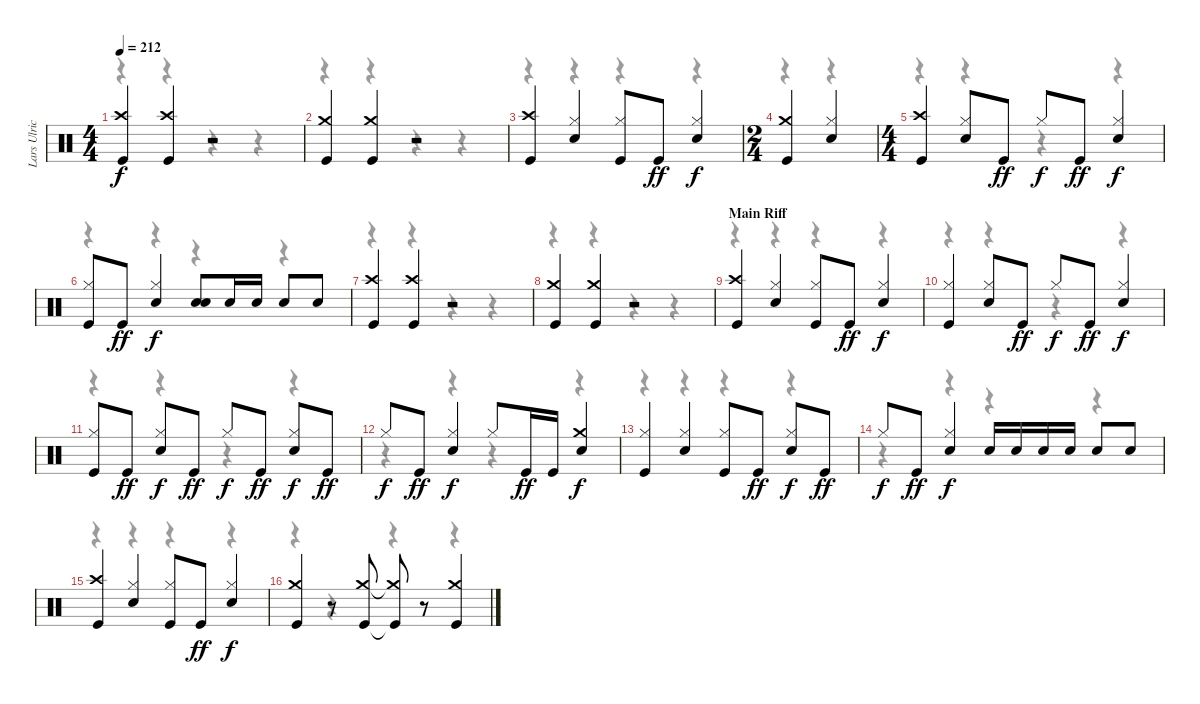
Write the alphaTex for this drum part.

\track ("Lars Ulrich" "Lars Ulric") {instrument percussion}
\staff {score}
\articulation defaults
\voice
\ts (4 4)
\tempo 212
\clef neutral
\ks c
("Crash high (hit)" "Kick (hit)").4{dy f} ("Crash high (hit)" "Kick (hit)").4 r.2 |
("Crash medium (hit)" "Kick (hit)").4 ("Crash medium (hit)" "Kick (hit)").4 r.2 |
("Crash high (hit)" "Kick (hit)").4 ("Hi-Hat (closed)" "Snare (hit) 2").4 ("Hi-Hat (closed)" "Kick (hit)").8 "Kick (hit)".8{dy ff} ("Hi-Hat (closed)" "Snare (hit) 2").4{dy f} |
\ts (2 4)
("Crash medium (hit)" "Kick (hit)").4 ("Hi-Hat (closed)" "Snare (hit) 2").4 |
\ts (4 4)
("Crash high (hit)" "Kick (hit)").4 ("Hi-Hat (closed)" "Snare (hit) 2").8 "Kick (hit)".8{dy ff} "Hi-Hat (closed)".8{dy f} "Kick (hit)".8{dy ff} ("Hi-Hat (closed)" "Snare (hit) 2").4{dy f} |
("Hi-Hat (closed)" "Kick (hit)").8 "Kick (hit)".8{dy ff} ("Hi-Hat (closed)" "Snare (hit) 2").4{dy f} ("Snare (hit) 2" "Snare (hit) 2").8 "Snare (hit) 2".16 "Snare (hit) 2".16 "Snare (hit) 2".8 "Snare (hit) 2".8 |
("Crash high (hit)" "Kick (hit)").4 ("Crash high (hit)" "Kick (hit)").4 r.2 |
("Crash medium (hit)" "Kick (hit)").4 ("Crash medium (hit)" "Kick (hit)").4 r.2 |
\section ("" "Main Riff")
("Crash high (hit)" "Kick (hit)").4 ("Hi-Hat (closed)" "Snare (hit) 2").4 ("Hi-Hat (closed)" "Kick (hit)").8 "Kick (hit)".8{dy ff} ("Hi-Hat (closed)" "Snare (hit) 2").4{dy f} |
("Hi-Hat (closed)" "Kick (hit)").4 ("Hi-Hat (closed)" "Snare (hit) 2").8 "Kick (hit)".8{dy ff} "Hi-Hat (closed)".8{dy f} "Kick (hit)".8{dy ff} ("Hi-Hat (closed)" "Snare (hit) 2").4{dy f} |
("Hi-Hat (closed)" "Kick (hit)").8 "Kick (hit)".8{dy ff} ("Hi-Hat (closed)" "Snare (hit) 2").8{dy f} "Kick (hit)".8{dy ff} "Hi-Hat (closed)".8{dy f} "Kick (hit)".8{dy ff} ("Hi-Hat (closed)" "Snare (hit) 2").8{dy f} "Kick (hit)".8{dy ff} |
"Hi-Hat (closed)".8{dy f} "Kick (hit)".8{dy ff} ("Hi-Hat (closed)" "Snare (hit) 2").4{dy f} "Hi-Hat (closed)".8 "Kick (hit)".16{dy ff} "Kick (hit)".16 ("Crash medium (hit)" "Snare (hit) 2").4{dy f} |
("Hi-Hat (closed)" "Kick (hit)").4 ("Hi-Hat (closed)" "Snare (hit) 2").4 ("Hi-Hat (closed)" "Kick (hit)").8 "Kick (hit)".8{dy ff} ("Hi-Hat (closed)" "Snare (hit) 2").8{dy f} "Kick (hit)".8{dy ff} |
"Hi-Hat (closed)".8{dy f} "Kick (hit)".8{dy ff} ("Hi-Hat (closed)" "Snare (hit) 2").4{dy f} "Snare (hit) 2".16 "Snare (hit) 2".16 "Snare (hit) 2".16 "Snare (hit) 2".16 "Snare (hit) 2".8 "Snare (hit) 2".8 |
("Crash high (hit)" "Kick (hit)").4 ("Hi-Hat (closed)" "Snare (hit) 2").4 ("Hi-Hat (closed)" "Kick (hit)").8 "Kick (hit)".8{dy ff} ("Hi-Hat (closed)" "Snare (hit) 2").4{dy f} |
("Crash medium (hit)" "Kick (hit)").4 r.8 ("Crash medium (hit)" "Kick (hit)").8 ("Crash medium (hit)"{t} "Kick (hit)"{t}).8 r.8 ("Crash medium (hit)" "Kick (hit)").4
\voice
\clef neutral
\ottava regular
\simile none
\ks c
r.4{dy f} r.4 r.4 r.4 |
r.4 r.4 r.4 r.4 |
r.4 r.4 r.4 r.4 |
r.4 r.4 |
r.4 r.4 r.4 r.4 |
r.4 r.4 r.4 r.4 |
r.4 r.4 r.4 r.4 |
r.4 r.4 r.4 r.4 |
r.4 r.4 r.4 r.4 |
r.4 r.4 r.4 r.4 |
r.4 r.4 r.4 r.4 |
r.4 r.4 r.4 r.4 |
r.4 r.4 r.4 r.4 |
r.4 r.4 r.4 r.4 |
r.4 r.4 r.4 r.4 |
r.4 r.4 r.4 r.4
